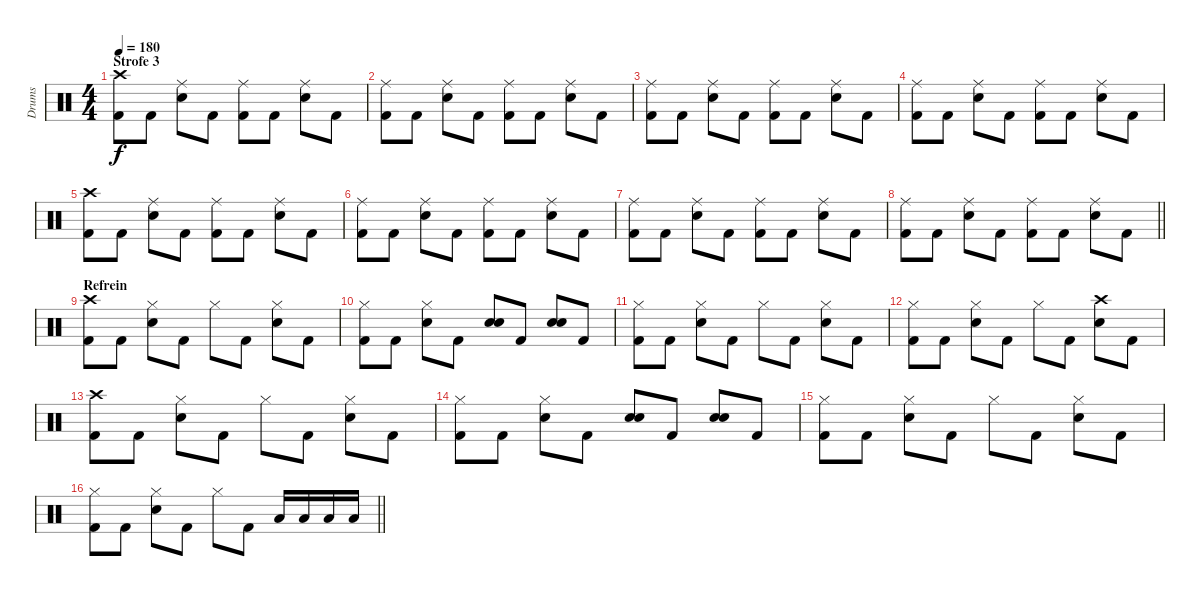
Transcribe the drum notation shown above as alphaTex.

\track ("Drums" "Drums") {instrument percussion}
\staff {score}
\articulation defaults
\ts (4 4)
\section ("" "Strofe 3")
\tempo 180
\clef neutral
\ks c
("Crash high (hit)" "Kick (hit) 2").8{dy f} "Kick (hit) 2".8 ("Ride (middle)" "Snare (hit) 2").8 "Kick (hit) 2".8 ("Ride (middle)" "Kick (hit) 2").8 "Kick (hit) 2".8 ("Ride (middle)" "Snare (hit) 2").8 "Kick (hit) 2".8 |
("Ride (middle)" "Kick (hit) 2").8 "Kick (hit) 2".8 ("Ride (middle)" "Snare (hit) 2").8 "Kick (hit) 2".8 ("Ride (middle)" "Kick (hit) 2").8 "Kick (hit) 2".8 ("Ride (middle)" "Snare (hit) 2").8 "Kick (hit) 2".8 |
("Ride (middle)" "Kick (hit) 2").8 "Kick (hit) 2".8 ("Ride (middle)" "Snare (hit) 2").8 "Kick (hit) 2".8 ("Ride (middle)" "Kick (hit) 2").8 "Kick (hit) 2".8 ("Ride (middle)" "Snare (hit) 2").8 "Kick (hit) 2".8 |
("Ride (middle)" "Kick (hit) 2").8 "Kick (hit) 2".8 ("Ride (middle)" "Snare (hit) 2").8 "Kick (hit) 2".8 ("Ride (middle)" "Kick (hit) 2").8 "Kick (hit) 2".8 ("Ride (middle)" "Snare (hit) 2").8 "Kick (hit) 2".8 |
("Crash high (hit)" "Kick (hit) 2").8 "Kick (hit) 2".8 ("Ride (middle)" "Snare (hit) 2").8 "Kick (hit) 2".8 ("Ride (middle)" "Kick (hit) 2").8 "Kick (hit) 2".8 ("Ride (middle)" "Snare (hit) 2").8 "Kick (hit) 2".8 |
("Ride (middle)" "Kick (hit) 2").8 "Kick (hit) 2".8 ("Ride (middle)" "Snare (hit) 2").8 "Kick (hit) 2".8 ("Ride (middle)" "Kick (hit) 2").8 "Kick (hit) 2".8 ("Ride (middle)" "Snare (hit) 2").8 "Kick (hit) 2".8 |
("Ride (middle)" "Kick (hit) 2").8 "Kick (hit) 2".8 ("Ride (middle)" "Snare (hit) 2").8 "Kick (hit) 2".8 ("Ride (middle)" "Kick (hit) 2").8 "Kick (hit) 2".8 ("Ride (middle)" "Snare (hit) 2").8 "Kick (hit) 2".8 |
\barLineRight lightlight
("Ride (middle)" "Kick (hit) 2").8 "Kick (hit) 2".8 ("Ride (middle)" "Snare (hit) 2").8 "Kick (hit) 2".8 ("Ride (middle)" "Kick (hit) 2").8 "Kick (hit) 2".8 ("Ride (middle)" "Snare (hit) 2").8 "Kick (hit) 2".8 |
\section ("" "Refrein")
("Crash high (hit)" "Kick (hit) 2").8 "Kick (hit) 2".8 ("Hi-Hat (closed)" "Snare (hit) 2").8 "Kick (hit) 2".8 "Hi-Hat (closed)".8 "Kick (hit) 2".8 ("Hi-Hat (closed)" "Snare (hit) 2").8 "Kick (hit) 2".8 |
("Hi-Hat (closed)" "Kick (hit) 2").8 "Kick (hit) 2".8 ("Hi-Hat (closed)" "Snare (hit) 2").8 "Kick (hit) 2".8 ("Snare (hit) 2" "Snare (hit) 2").8{bd 120} "Kick (hit) 2".8 ("Snare (hit) 2" "Snare (hit) 2").8{bd 120} "Kick (hit) 2".8 |
("Hi-Hat (closed)" "Kick (hit) 2").8 "Kick (hit) 2".8 ("Hi-Hat (closed)" "Snare (hit) 2").8 "Kick (hit) 2".8 "Hi-Hat (closed)".8 "Kick (hit) 2".8 ("Hi-Hat (closed)" "Snare (hit) 2").8 "Kick (hit) 2".8 |
("Hi-Hat (closed)" "Kick (hit) 2").8 "Kick (hit) 2".8 ("Hi-Hat (closed)" "Snare (hit) 2").8 "Kick (hit) 2".8 "Hi-Hat (closed)".8 "Kick (hit) 2".8 ("Crash high (hit)" "Snare (hit) 2").8 "Kick (hit) 2".8 |
("Crash high (hit)" "Kick (hit) 2").8 "Kick (hit) 2".8 ("Hi-Hat (closed)" "Snare (hit) 2").8 "Kick (hit) 2".8 "Hi-Hat (closed)".8 "Kick (hit) 2".8 ("Hi-Hat (closed)" "Snare (hit) 2").8 "Kick (hit) 2".8 |
("Hi-Hat (closed)" "Kick (hit) 2").8 "Kick (hit) 2".8 ("Hi-Hat (closed)" "Snare (hit) 2").8 "Kick (hit) 2".8 ("Snare (hit) 2" "Snare (hit) 2").8{bd 120} "Kick (hit) 2".8 ("Snare (hit) 2" "Snare (hit) 2").8{bd 120} "Kick (hit) 2".8 |
("Hi-Hat (closed)" "Kick (hit) 2").8 "Kick (hit) 2".8 ("Hi-Hat (closed)" "Snare (hit) 2").8 "Kick (hit) 2".8 "Hi-Hat (closed)".8 "Kick (hit) 2".8 ("Hi-Hat (closed)" "Snare (hit) 2").8 "Kick (hit) 2".8 |
\barLineRight lightlight
("Hi-Hat (closed)" "Kick (hit) 2").8 "Kick (hit) 2".8 ("Hi-Hat (closed)" "Snare (hit) 2").8 "Kick (hit) 2".8 "Hi-Hat (closed)".8 "Kick (hit) 2".8 "Low Tom (hit)".16 "Low Tom (hit)".16 "Low Tom (hit)".16 "Low Tom (hit)".16
